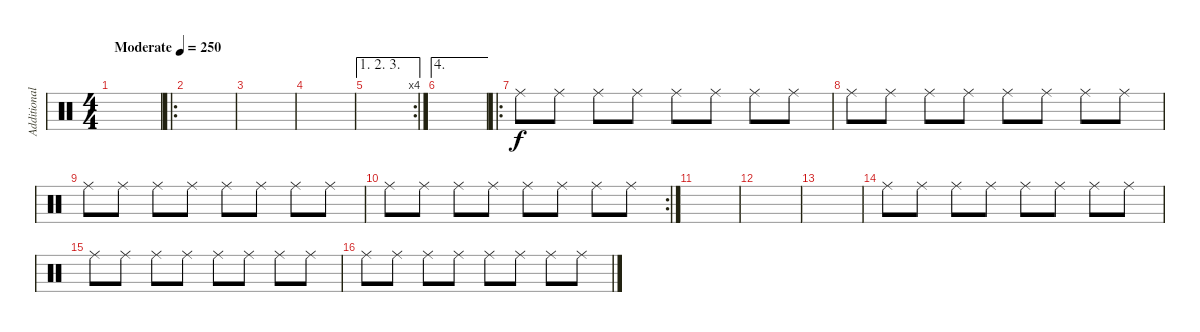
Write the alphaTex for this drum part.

\track ("Additional drums" "Additional") {instrument percussion}
\staff {score}
\articulation defaults
\ts (4 4)
\tempo (250 "Moderate")
\clef neutral
\ks c
|
\ro
|
|
|
\ae (1 2 3)
\rc 4
|
\ae 4
|
\ro "Ride (middle)".8 "Ride (middle)".8 "Ride (middle)".8 "Ride (middle)".8 "Ride (middle)".8 "Ride (middle)".8 "Ride (middle)".8 "Ride (middle)".8
|
"Ride (middle)".8 "Ride (middle)".8 "Ride (middle)".8 "Ride (middle)".8 "Ride (middle)".8 "Ride (middle)".8 "Ride (middle)".8 "Ride (middle)".8 |
"Ride (middle)".8 "Ride (middle)".8 "Ride (middle)".8 "Ride (middle)".8 "Ride (middle)".8 "Ride (middle)".8 "Ride (middle)".8 "Ride (middle)".8 |
\rc 2 "Ride (middle)".8 "Ride (middle)".8 "Ride (middle)".8 "Ride (middle)".8 "Ride (middle)".8 "Ride (middle)".8 "Ride (middle)".8 "Ride (middle)".8
|
|
|
|
"Ride (middle)".8 "Ride (middle)".8 "Ride (middle)".8 "Ride (middle)".8 "Ride (middle)".8 "Ride (middle)".8 "Ride (middle)".8 "Ride (middle)".8 |
"Ride (middle)".8 "Ride (middle)".8 "Ride (middle)".8 "Ride (middle)".8 "Ride (middle)".8 "Ride (middle)".8 "Ride (middle)".8 "Ride (middle)".8 |
"Ride (middle)".8 "Ride (middle)".8 "Ride (middle)".8 "Ride (middle)".8 "Ride (middle)".8 "Ride (middle)".8 "Ride (middle)".8 "Ride (middle)".8
